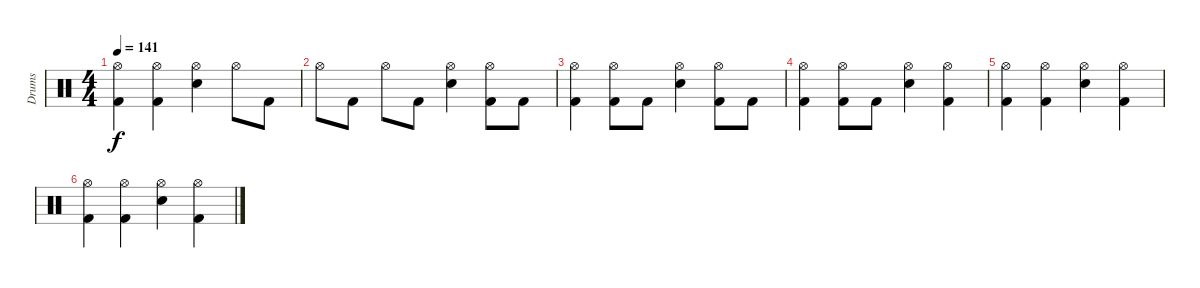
\track ("Drums" "Drums") {instrument percussion}
\staff {score}
\articulation defaults
\ts (4 4)
\tempo 141
\clef neutral
\ks c
("Hi-Hat (open)" "Kick (hit) 2").4{dy f} ("Hi-Hat (open)" "Kick (hit) 2").4 ("Hi-Hat (open)" "Snare (hit) 2").4 "Hi-Hat (open)".8 "Kick (hit) 2".8 |
"Hi-Hat (open)".8 "Kick (hit) 2".8 "Hi-Hat (open)".8 "Kick (hit) 2".8 ("Hi-Hat (open)" "Snare (hit) 2").4 ("Hi-Hat (open)" "Kick (hit) 2").8 "Kick (hit) 2".8 |
("Hi-Hat (open)" "Kick (hit) 2").4 ("Hi-Hat (open)" "Kick (hit) 2").8 "Kick (hit) 2".8 ("Hi-Hat (open)" "Snare (hit) 2").4 ("Hi-Hat (open)" "Kick (hit) 2").8 "Kick (hit) 2".8 |
("Hi-Hat (open)" "Kick (hit) 2").4 ("Hi-Hat (open)" "Kick (hit) 2").8 "Kick (hit) 2".8 ("Hi-Hat (open)" "Snare (hit) 2").4 ("Hi-Hat (open)" "Kick (hit) 2").4 |
("Hi-Hat (open)" "Kick (hit) 2").4 ("Hi-Hat (open)" "Kick (hit) 2").4 ("Hi-Hat (open)" "Snare (hit) 2").4 ("Hi-Hat (open)" "Kick (hit) 2").4 |
("Hi-Hat (open)" "Kick (hit) 2").4 ("Hi-Hat (open)" "Kick (hit) 2").4 ("Hi-Hat (open)" "Snare (hit) 2").4 ("Hi-Hat (open)" "Kick (hit) 2").4
